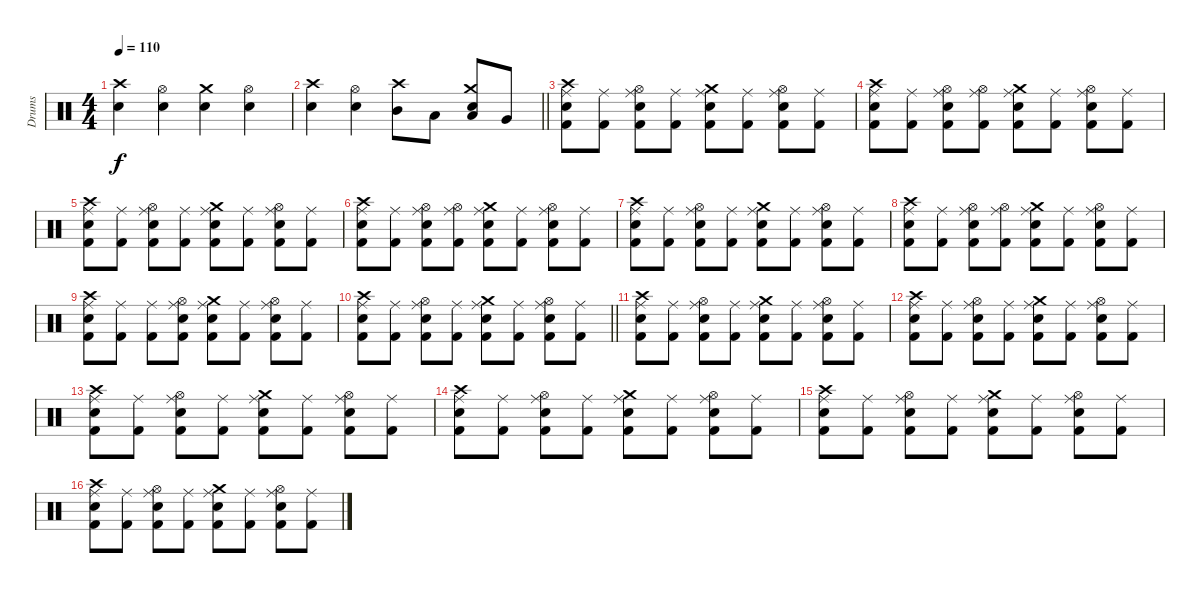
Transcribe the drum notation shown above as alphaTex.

\track ("Drums" "Drums") {instrument percussion}
\staff {score}
\articulation defaults
\ts (4 4)
\tempo 110
\clef neutral
\ks c
("Crash high (hit)" "Snare (hit) 2").4{dy f} ("Hi-Hat (open)" "Snare (hit) 2").4 ("Crash medium (hit)" "Snare (hit) 2").4 ("Hi-Hat (open)" "Snare (hit) 2").4 |
\barLineRight lightlight
("Crash high (hit)" "Snare (hit) 2").4 ("Hi-Hat (open)" "Snare (hit) 2").4 ("Crash high (hit)" "Mid Tom (hit)").8 "Low Tom (hit)".8 ("Crash medium (hit)" "Low Tom (hit)" "Snare (hit) 2").8 "Very Low Tom (hit)".8 |
("Kick (hit) 2" "Crash high (hit)" "Ride (middle)" "Snare (hit) 2").8 ("Kick (hit) 2" "Ride (middle)").8 ("Kick (hit) 2" "Hi-Hat (open)" "Ride (middle)" "Snare (hit) 2").8 ("Kick (hit) 2" "Ride (middle)").8 ("Kick (hit) 2" "Crash medium (hit)" "Ride (middle)" "Snare (hit) 2").8 ("Kick (hit) 2" "Ride (middle)").8 ("Kick (hit) 2" "Hi-Hat (open)" "Ride (middle)" "Snare (hit) 2").8 ("Kick (hit) 2" "Ride (middle)").8 |
("Kick (hit) 2" "Crash high (hit)" "Ride (middle)" "Snare (hit) 2").8 ("Kick (hit) 2" "Ride (middle)").8 ("Kick (hit) 2" "Hi-Hat (open)" "Ride (middle)" "Snare (hit) 2").8 ("Kick (hit) 2" "Hi-Hat (open)" "Ride (middle)").8 ("Kick (hit) 2" "Crash medium (hit)" "Ride (middle)" "Snare (hit) 2").8 ("Kick (hit) 2" "Ride (middle)").8 ("Kick (hit) 2" "Hi-Hat (open)" "Ride (middle)" "Snare (hit) 2").8 ("Kick (hit) 2" "Ride (middle)").8 |
("Kick (hit) 2" "Crash high (hit)" "Ride (middle)" "Snare (hit) 2").8 ("Kick (hit) 2" "Ride (middle)").8 ("Kick (hit) 2" "Hi-Hat (open)" "Ride (middle)" "Snare (hit) 2").8 ("Kick (hit) 2" "Ride (middle)").8 ("Kick (hit) 2" "Crash medium (hit)" "Ride (middle)" "Snare (hit) 2").8 ("Kick (hit) 2" "Ride (middle)").8 ("Kick (hit) 2" "Hi-Hat (open)" "Ride (middle)" "Snare (hit) 2").8 ("Kick (hit) 2" "Ride (middle)").8 |
("Kick (hit) 2" "Crash high (hit)" "Ride (middle)" "Snare (hit) 2").8 ("Kick (hit) 2" "Ride (middle)").8 ("Kick (hit) 2" "Hi-Hat (open)" "Ride (middle)" "Snare (hit) 2").8 ("Kick (hit) 2" "Hi-Hat (open)" "Ride (middle)").8 ("Kick (hit) 2" "Crash medium (hit)" "Ride (middle)" "Snare (hit) 2").8 ("Kick (hit) 2" "Ride (middle)").8 ("Kick (hit) 2" "Hi-Hat (open)" "Ride (middle)" "Snare (hit) 2").8 ("Kick (hit) 2" "Ride (middle)").8 |
("Kick (hit) 2" "Crash high (hit)" "Ride (middle)" "Snare (hit) 2").8 ("Kick (hit) 2" "Ride (middle)").8 ("Kick (hit) 2" "Hi-Hat (open)" "Ride (middle)" "Snare (hit) 2").8 ("Kick (hit) 2" "Ride (middle)").8 ("Kick (hit) 2" "Crash medium (hit)" "Ride (middle)" "Snare (hit) 2").8 ("Kick (hit) 2" "Ride (middle)").8 ("Kick (hit) 2" "Hi-Hat (open)" "Ride (middle)" "Snare (hit) 2").8 ("Kick (hit) 2" "Ride (middle)").8 |
("Kick (hit) 2" "Crash high (hit)" "Ride (middle)" "Snare (hit) 2").8 ("Kick (hit) 2" "Ride (middle)").8 ("Kick (hit) 2" "Hi-Hat (open)" "Ride (middle)" "Snare (hit) 2").8 ("Kick (hit) 2" "Hi-Hat (open)" "Ride (middle)").8 ("Kick (hit) 2" "Crash medium (hit)" "Ride (middle)" "Snare (hit) 2").8 ("Kick (hit) 2" "Ride (middle)").8 ("Kick (hit) 2" "Hi-Hat (open)" "Ride (middle)" "Snare (hit) 2").8 ("Kick (hit) 2" "Ride (middle)").8 |
("Kick (hit) 2" "Crash high (hit)" "Ride (middle)" "Snare (hit) 2").8 ("Kick (hit) 2" "Ride (middle)").8 ("Kick (hit) 2" "Ride (middle)").8 ("Kick (hit) 2" "Hi-Hat (open)" "Ride (middle)" "Snare (hit) 2").8 ("Kick (hit) 2" "Crash medium (hit)" "Ride (middle)" "Snare (hit) 2").8 ("Kick (hit) 2" "Ride (middle)").8 ("Kick (hit) 2" "Hi-Hat (open)" "Ride (middle)" "Snare (hit) 2").8 ("Kick (hit) 2" "Ride (middle)").8 |
\barLineRight lightlight
("Kick (hit) 2" "Crash high (hit)" "Ride (middle)" "Snare (hit) 2").8 ("Kick (hit) 2" "Ride (middle)").8 ("Kick (hit) 2" "Hi-Hat (open)" "Ride (middle)" "Snare (hit) 2").8 ("Kick (hit) 2" "Ride (middle)").8 ("Kick (hit) 2" "Crash medium (hit)" "Ride (middle)" "Snare (hit) 2").8 ("Kick (hit) 2" "Ride (middle)").8 ("Kick (hit) 2" "Hi-Hat (open)" "Ride (middle)" "Snare (hit) 2").8 ("Kick (hit) 2" "Ride (middle)").8 |
("Kick (hit) 2" "Crash high (hit)" "Ride (middle)" "Snare (hit) 2").8 ("Kick (hit) 2" "Ride (middle)").8 ("Kick (hit) 2" "Hi-Hat (open)" "Ride (middle)" "Snare (hit) 2").8 ("Kick (hit) 2" "Ride (middle)").8 ("Kick (hit) 2" "Crash medium (hit)" "Ride (middle)" "Snare (hit) 2").8 ("Kick (hit) 2" "Ride (middle)").8 ("Kick (hit) 2" "Hi-Hat (open)" "Ride (middle)" "Snare (hit) 2").8 ("Kick (hit) 2" "Ride (middle)").8 |
("Kick (hit) 2" "Crash high (hit)" "Ride (middle)" "Snare (hit) 2").8 ("Kick (hit) 2" "Ride (middle)").8 ("Kick (hit) 2" "Hi-Hat (open)" "Ride (middle)" "Snare (hit) 2").8 ("Kick (hit) 2" "Ride (middle)").8 ("Kick (hit) 2" "Crash medium (hit)" "Ride (middle)" "Snare (hit) 2").8 ("Kick (hit) 2" "Ride (middle)").8 ("Kick (hit) 2" "Hi-Hat (open)" "Ride (middle)" "Snare (hit) 2").8 ("Kick (hit) 2" "Ride (middle)").8 |
("Kick (hit) 2" "Crash high (hit)" "Ride (middle)" "Snare (hit) 2").8 ("Kick (hit) 2" "Ride (middle)").8 ("Kick (hit) 2" "Hi-Hat (open)" "Ride (middle)" "Snare (hit) 2").8 ("Kick (hit) 2" "Ride (middle)").8 ("Kick (hit) 2" "Crash medium (hit)" "Ride (middle)" "Snare (hit) 2").8 ("Kick (hit) 2" "Ride (middle)").8 ("Kick (hit) 2" "Hi-Hat (open)" "Ride (middle)" "Snare (hit) 2").8 ("Kick (hit) 2" "Ride (middle)").8 |
("Kick (hit) 2" "Crash high (hit)" "Ride (middle)" "Snare (hit) 2").8 ("Kick (hit) 2" "Ride (middle)").8 ("Kick (hit) 2" "Hi-Hat (open)" "Ride (middle)" "Snare (hit) 2").8 ("Kick (hit) 2" "Ride (middle)").8 ("Kick (hit) 2" "Crash medium (hit)" "Ride (middle)" "Snare (hit) 2").8 ("Kick (hit) 2" "Ride (middle)").8 ("Kick (hit) 2" "Hi-Hat (open)" "Ride (middle)" "Snare (hit) 2").8 ("Kick (hit) 2" "Ride (middle)").8 |
("Kick (hit) 2" "Crash high (hit)" "Ride (middle)" "Snare (hit) 2").8 ("Kick (hit) 2" "Ride (middle)").8 ("Kick (hit) 2" "Hi-Hat (open)" "Ride (middle)" "Snare (hit) 2").8 ("Kick (hit) 2" "Ride (middle)").8 ("Kick (hit) 2" "Crash medium (hit)" "Ride (middle)" "Snare (hit) 2").8 ("Kick (hit) 2" "Ride (middle)").8 ("Kick (hit) 2" "Hi-Hat (open)" "Ride (middle)" "Snare (hit) 2").8 ("Kick (hit) 2" "Ride (middle)").8 |
("Kick (hit) 2" "Crash high (hit)" "Ride (middle)" "Snare (hit) 2").8 ("Kick (hit) 2" "Ride (middle)").8 ("Kick (hit) 2" "Hi-Hat (open)" "Ride (middle)" "Snare (hit) 2").8 ("Kick (hit) 2" "Ride (middle)").8 ("Kick (hit) 2" "Crash medium (hit)" "Ride (middle)" "Snare (hit) 2").8 ("Kick (hit) 2" "Ride (middle)").8 ("Kick (hit) 2" "Hi-Hat (open)" "Ride (middle)" "Snare (hit) 2").8 ("Kick (hit) 2" "Ride (middle)").8
